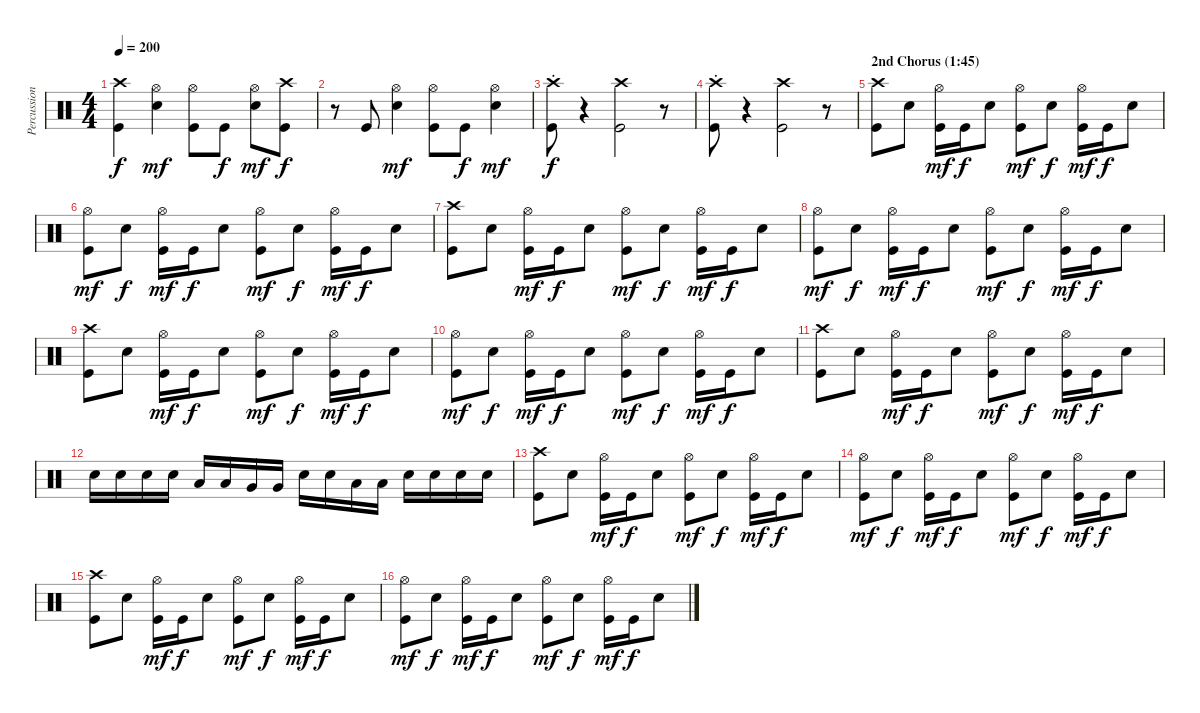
\track ("Percussion" "Percussion") {instrument percussion}
\staff {score}
\articulation defaults
\ts (4 4)
\tempo 200
\clef neutral
\ks c
("Crash high (hit)" "Kick (hit)").4{dy f} ("Hi-Hat (open)" "Snare (hit) 2").4{dy mf} ("Hi-Hat (open)" "Kick (hit)").8 "Kick (hit)".8{dy f} ("Hi-Hat (open)" "Snare (hit) 2").8{dy mf} ("Crash high (hit)" "Kick (hit)").8{dy f} |
r.8 "Kick (hit)".8 ("Hi-Hat (open)" "Snare (hit) 2").4{dy mf} ("Hi-Hat (open)" "Kick (hit)").8 "Kick (hit)".8{dy f} ("Hi-Hat (open)" "Snare (hit) 2").4{dy mf} |
("Crash high (hit)"{st} "Kick (hit)").8{dy f} r.4 ("Crash high (hit)" "Kick (hit)").2 r.8 |
("Crash high (hit)"{st} "Kick (hit)").8 r.4 ("Crash high (hit)" "Kick (hit)").2 r.8 |
\section ("" "2nd Chorus (1:45)")
("Crash high (hit)" "Kick (hit)").8 "Snare (hit) 2".8 ("Hi-Hat (open)" "Kick (hit)").16{dy mf} "Kick (hit)".16{dy f} "Snare (hit) 2".8 ("Hi-Hat (open)" "Kick (hit)").8{dy mf} "Snare (hit) 2".8{dy f} ("Hi-Hat (open)" "Kick (hit)").16{dy mf} "Kick (hit)".16{dy f} "Snare (hit) 2".8 |
("Hi-Hat (open)" "Kick (hit)").8{dy mf} "Snare (hit) 2".8{dy f} ("Hi-Hat (open)" "Kick (hit)").16{dy mf} "Kick (hit)".16{dy f} "Snare (hit) 2".8 ("Hi-Hat (open)" "Kick (hit)").8{dy mf} "Snare (hit) 2".8{dy f} ("Hi-Hat (open)" "Kick (hit)").16{dy mf} "Kick (hit)".16{dy f} "Snare (hit) 2".8 |
("Crash high (hit)" "Kick (hit)").8 "Snare (hit) 2".8 ("Hi-Hat (open)" "Kick (hit)").16{dy mf} "Kick (hit)".16{dy f} "Snare (hit) 2".8 ("Hi-Hat (open)" "Kick (hit)").8{dy mf} "Snare (hit) 2".8{dy f} ("Hi-Hat (open)" "Kick (hit)").16{dy mf} "Kick (hit)".16{dy f} "Snare (hit) 2".8 |
("Hi-Hat (open)" "Kick (hit)").8{dy mf} "Snare (hit) 2".8{dy f} ("Hi-Hat (open)" "Kick (hit)").16{dy mf} "Kick (hit)".16{dy f} "Snare (hit) 2".8 ("Hi-Hat (open)" "Kick (hit)").8{dy mf} "Snare (hit) 2".8{dy f} ("Hi-Hat (open)" "Kick (hit)").16{dy mf} "Kick (hit)".16{dy f} "Snare (hit) 2".8 |
("Crash high (hit)" "Kick (hit)").8 "Snare (hit) 2".8 ("Hi-Hat (open)" "Kick (hit)").16{dy mf} "Kick (hit)".16{dy f} "Snare (hit) 2".8 ("Hi-Hat (open)" "Kick (hit)").8{dy mf} "Snare (hit) 2".8{dy f} ("Hi-Hat (open)" "Kick (hit)").16{dy mf} "Kick (hit)".16{dy f} "Snare (hit) 2".8 |
("Hi-Hat (open)" "Kick (hit)").8{dy mf} "Snare (hit) 2".8{dy f} ("Hi-Hat (open)" "Kick (hit)").16{dy mf} "Kick (hit)".16{dy f} "Snare (hit) 2".8 ("Hi-Hat (open)" "Kick (hit)").8{dy mf} "Snare (hit) 2".8{dy f} ("Hi-Hat (open)" "Kick (hit)").16{dy mf} "Kick (hit)".16{dy f} "Snare (hit) 2".8 |
("Crash high (hit)" "Kick (hit)").8 "Snare (hit) 2".8 ("Hi-Hat (open)" "Kick (hit)").16{dy mf} "Kick (hit)".16{dy f} "Snare (hit) 2".8 ("Hi-Hat (open)" "Kick (hit)").8{dy mf} "Snare (hit) 2".8{dy f} ("Hi-Hat (open)" "Kick (hit)").16{dy mf} "Kick (hit)".16{dy f} "Snare (hit) 2".8 |
"Snare (hit) 2".16 "Snare (hit) 2".16 "Snare (hit) 2".16 "Snare (hit) 2".16 "Low Tom (hit)".16 "Low Tom (hit)".16 "Very Low Tom (hit)".16 "Very Low Tom (hit)".16 "Snare (hit) 2".16 "Snare (hit) 2".16 "Low Tom (hit)".16 "Low Tom (hit)".16 "Snare (hit) 2".16 "Snare (hit) 2".16 "Snare (hit) 2".16 "Snare (hit) 2".16 |
("Crash high (hit)" "Kick (hit)").8 "Snare (hit) 2".8 ("Hi-Hat (open)" "Kick (hit)").16{dy mf} "Kick (hit)".16{dy f} "Snare (hit) 2".8 ("Hi-Hat (open)" "Kick (hit)").8{dy mf} "Snare (hit) 2".8{dy f} ("Hi-Hat (open)" "Kick (hit)").16{dy mf} "Kick (hit)".16{dy f} "Snare (hit) 2".8 |
("Hi-Hat (open)" "Kick (hit)").8{dy mf} "Snare (hit) 2".8{dy f} ("Hi-Hat (open)" "Kick (hit)").16{dy mf} "Kick (hit)".16{dy f} "Snare (hit) 2".8 ("Hi-Hat (open)" "Kick (hit)").8{dy mf} "Snare (hit) 2".8{dy f} ("Hi-Hat (open)" "Kick (hit)").16{dy mf} "Kick (hit)".16{dy f} "Snare (hit) 2".8 |
("Crash high (hit)" "Kick (hit)").8 "Snare (hit) 2".8 ("Hi-Hat (open)" "Kick (hit)").16{dy mf} "Kick (hit)".16{dy f} "Snare (hit) 2".8 ("Hi-Hat (open)" "Kick (hit)").8{dy mf} "Snare (hit) 2".8{dy f} ("Hi-Hat (open)" "Kick (hit)").16{dy mf} "Kick (hit)".16{dy f} "Snare (hit) 2".8 |
("Hi-Hat (open)" "Kick (hit)").8{dy mf} "Snare (hit) 2".8{dy f} ("Hi-Hat (open)" "Kick (hit)").16{dy mf} "Kick (hit)".16{dy f} "Snare (hit) 2".8 ("Hi-Hat (open)" "Kick (hit)").8{dy mf} "Snare (hit) 2".8{dy f} ("Hi-Hat (open)" "Kick (hit)").16{dy mf} "Kick (hit)".16{dy f} "Snare (hit) 2".8
